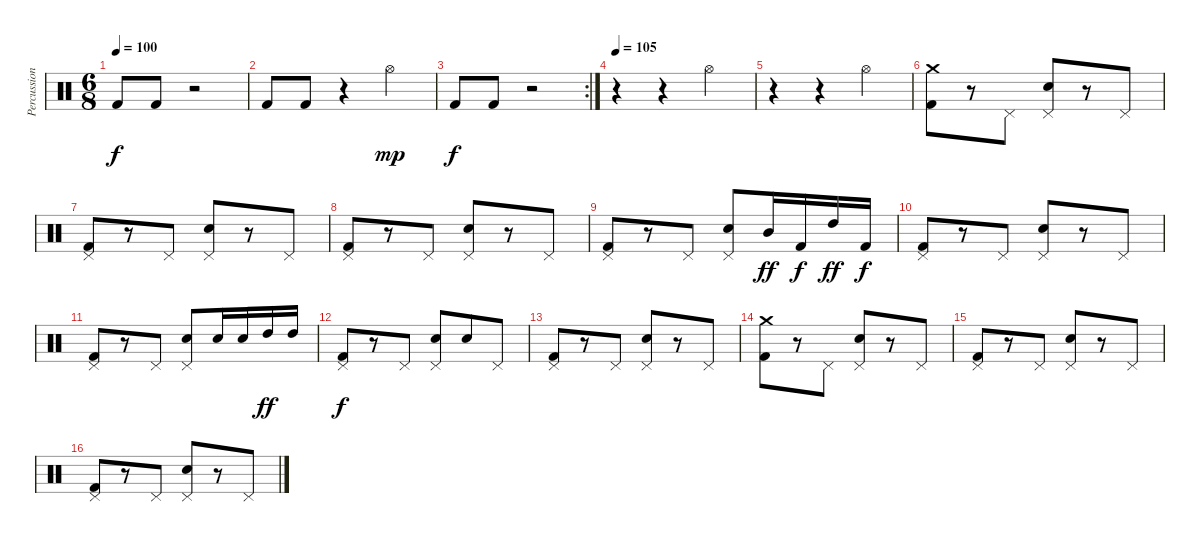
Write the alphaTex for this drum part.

\track ("Percussioni" "Percussion") {instrument percussion}
\staff {score}
\articulation defaults
\ts (6 8)
\tempo 100
\clef neutral
\ks c "Kick (hit) 2".8{dy f} "Kick (hit) 2".8
r.2 |
"Kick (hit) 2".8 "Kick (hit) 2".8 r.4 "Hi-Hat (open)".4{dy mp} |
\rc 2 "Kick (hit) 2".8{dy f} "Kick (hit) 2".8
r.2 |
\tempo 105
r.4 r.4 "Hi-Hat (open)".4 |
r.4 r.4 "Hi-Hat (open)".4 |
("Crash medium (hit)" "Kick (hit) 2").8 r.8 "Pedal Hi-Hat (hit)".8 ("Pedal Hi-Hat (hit)" "Electric Snare (hit)").8 r.8 "Pedal Hi-Hat (hit)".8 |
("Pedal Hi-Hat (hit)" "Kick (hit) 2").8 r.8 "Pedal Hi-Hat (hit)".8 ("Pedal Hi-Hat (hit)" "Electric Snare (hit)").8 r.8 "Pedal Hi-Hat (hit)".8 |
("Pedal Hi-Hat (hit)" "Kick (hit) 2").8 r.8 "Pedal Hi-Hat (hit)".8 ("Pedal Hi-Hat (hit)" "Electric Snare (hit)").8 r.8 "Pedal Hi-Hat (hit)".8 |
("Pedal Hi-Hat (hit)" "Kick (hit) 2").8 r.8 "Pedal Hi-Hat (hit)".8 ("Pedal Hi-Hat (hit)" "Electric Snare (hit)").8 "Mid Tom (hit)".16{dy ff} "Kick (hit) 2".16{dy f} "High Tom (hit)".16{dy ff} "Kick (hit) 2".16{dy f} |
("Pedal Hi-Hat (hit)" "Kick (hit) 2").8 r.8 "Pedal Hi-Hat (hit)".8 ("Pedal Hi-Hat (hit)" "Electric Snare (hit)").8 r.8 "Pedal Hi-Hat (hit)".8 |
("Pedal Hi-Hat (hit)" "Kick (hit) 2").8 r.8 "Pedal Hi-Hat (hit)".8 ("Pedal Hi-Hat (hit)" "Electric Snare (hit)").8 "Electric Snare (hit)".16 "Electric Snare (hit)".16 "High Tom (hit)".16{dy ff} "High Tom (hit)".16 |
("Pedal Hi-Hat (hit)" "Kick (hit) 2").8{dy f} r.8 "Pedal Hi-Hat (hit)".8 ("Pedal Hi-Hat (hit)" "Electric Snare (hit)").8 "Electric Snare (hit)".8 "Pedal Hi-Hat (hit)".8 |
("Pedal Hi-Hat (hit)" "Kick (hit) 2").8 r.8 "Pedal Hi-Hat (hit)".8 ("Pedal Hi-Hat (hit)" "Electric Snare (hit)").8 r.8 "Pedal Hi-Hat (hit)".8 |
("Crash medium (hit)" "Kick (hit) 2").8 r.8 "Pedal Hi-Hat (hit)".8 ("Pedal Hi-Hat (hit)" "Electric Snare (hit)").8 r.8 "Pedal Hi-Hat (hit)".8 |
("Pedal Hi-Hat (hit)" "Kick (hit) 2").8 r.8 "Pedal Hi-Hat (hit)".8 ("Pedal Hi-Hat (hit)" "Electric Snare (hit)").8 r.8 "Pedal Hi-Hat (hit)".8 |
("Pedal Hi-Hat (hit)" "Kick (hit) 2").8 r.8 "Pedal Hi-Hat (hit)".8 ("Pedal Hi-Hat (hit)" "Electric Snare (hit)").8 r.8 "Pedal Hi-Hat (hit)".8
